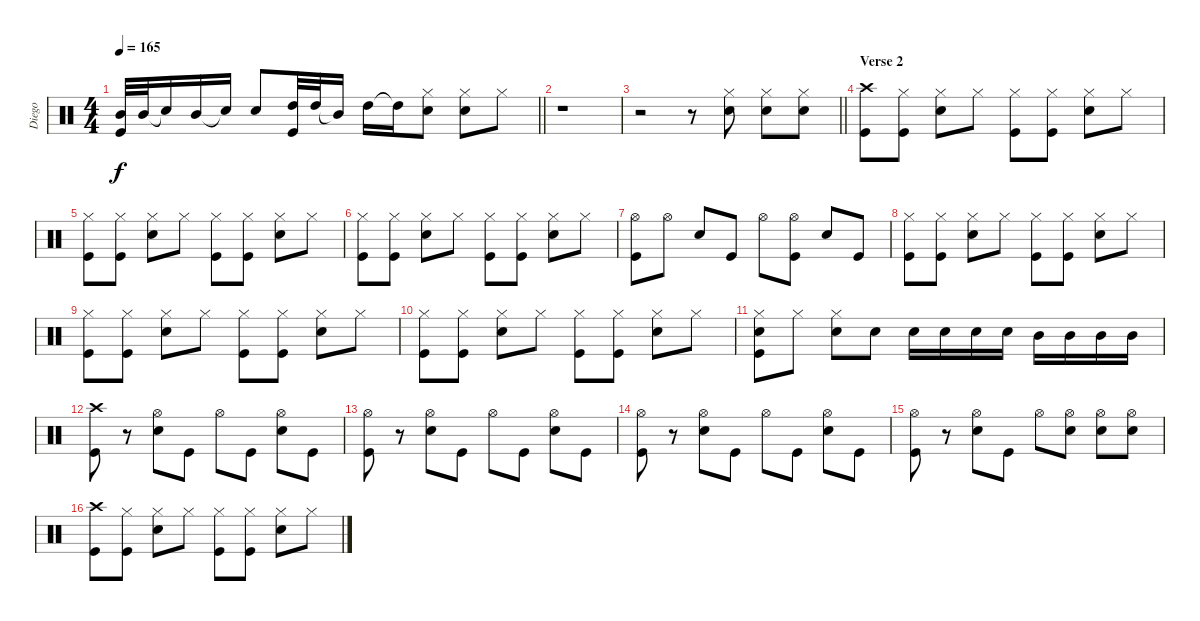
\track ("Diego" "Diego") {instrument percussion}
\staff {score}
\articulation defaults
\ts (4 4)
\tempo 165
\clef neutral
\barLineRight lightlight
\ks c
("Mid Tom (hit)" "Kick (hit)").32{dy f} "Mid Tom (hit)".32 "Snare (hit)"{t}.16 "Mid Tom (hit)".16 "Snare (hit) 2"{t}.16 "Snare (hit) 2".8 ("High Tom (hit)" "Kick (hit)").32 "High Tom (hit)".32 "Mid Tom (hit)"{t}.16 "High Tom (hit)".16 "High Tom (hit)"{t}.16 ("Hi-Hat (closed)" "Snare (hit) 2").8 ("Hi-Hat (closed)" "Snare (hit) 2").8 "Hi-Hat (closed)".8 |
r.1 |
\barLineRight lightlight
r.2 r.8 ("Hi-Hat (closed)" "Snare (hit) 2").8 ("Hi-Hat (closed)" "Snare (hit) 2").8 ("Hi-Hat (closed)" "Snare (hit) 2").8 |
\section ("" "Verse 2")
("Crash high (hit)" "Kick (hit)").8 ("Hi-Hat (closed)" "Kick (hit)").8 ("Hi-Hat (closed)" "Snare (hit) 2").8 "Hi-Hat (closed)".8 ("Hi-Hat (closed)" "Kick (hit)").8 ("Hi-Hat (closed)" "Kick (hit)").8 ("Hi-Hat (closed)" "Snare (hit) 2").8 "Hi-Hat (closed)".8 |
("Hi-Hat (closed)" "Kick (hit)").8 ("Hi-Hat (closed)" "Kick (hit)").8 ("Hi-Hat (closed)" "Snare (hit) 2").8 "Hi-Hat (closed)".8 ("Hi-Hat (closed)" "Kick (hit)").8 ("Hi-Hat (closed)" "Kick (hit)").8 ("Hi-Hat (closed)" "Snare (hit) 2").8 "Hi-Hat (closed)".8 |
("Hi-Hat (closed)" "Kick (hit)").8 ("Hi-Hat (closed)" "Kick (hit)").8 ("Hi-Hat (closed)" "Snare (hit) 2").8 "Hi-Hat (closed)".8 ("Hi-Hat (closed)" "Kick (hit)").8 ("Hi-Hat (closed)" "Kick (hit)").8 ("Hi-Hat (closed)" "Snare (hit) 2").8 "Hi-Hat (closed)".8 |
("Hi-Hat (open)" "Kick (hit)").8 "Hi-Hat (open)".8 "Snare (hit) 2".8 "Kick (hit)".8 "Hi-Hat (open)".8 ("Hi-Hat (open)" "Kick (hit)").8 "Snare (hit) 2".8 "Kick (hit)".8 |
("Hi-Hat (closed)" "Kick (hit)").8 ("Hi-Hat (closed)" "Kick (hit)").8 ("Hi-Hat (closed)" "Snare (hit) 2").8 "Hi-Hat (closed)".8 ("Hi-Hat (closed)" "Kick (hit)").8 ("Hi-Hat (closed)" "Kick (hit)").8 ("Hi-Hat (closed)" "Snare (hit) 2").8 "Hi-Hat (closed)".8 |
("Hi-Hat (closed)" "Kick (hit)").8 ("Hi-Hat (closed)" "Kick (hit)").8 ("Hi-Hat (closed)" "Snare (hit) 2").8 "Hi-Hat (closed)".8 ("Hi-Hat (closed)" "Kick (hit)").8 ("Hi-Hat (closed)" "Kick (hit)").8 ("Hi-Hat (closed)" "Snare (hit) 2").8 "Hi-Hat (closed)".8 |
("Hi-Hat (closed)" "Kick (hit)").8 ("Hi-Hat (closed)" "Kick (hit)").8 ("Hi-Hat (closed)" "Snare (hit) 2").8 "Hi-Hat (closed)".8 ("Hi-Hat (closed)" "Kick (hit)").8 ("Hi-Hat (closed)" "Kick (hit)").8 ("Hi-Hat (closed)" "Snare (hit) 2").8 "Hi-Hat (closed)".8 |
("Hi-Hat (closed)" "Snare (hit) 2" "Kick (hit)").8 "Hi-Hat (closed)".8 ("Hi-Hat (closed)" "Snare (hit) 2").8 "Snare (hit) 2".8 "Snare (hit) 2".16 "Snare (hit) 2".16 "Snare (hit) 2".16 "Snare (hit) 2".16 "Mid Tom (hit)".16 "Mid Tom (hit)".16 "Mid Tom (hit)".16 "Mid Tom (hit)".16 |
("Crash high (hit)" "Kick (hit)").8 r.8 ("Hi-Hat (open)" "Snare (hit) 2").8 "Kick (hit)".8 "Hi-Hat (open)".8 "Kick (hit)".8 ("Hi-Hat (open)" "Snare (hit) 2").8 "Kick (hit)".8 |
("Hi-Hat (open)" "Kick (hit)").8 r.8 ("Hi-Hat (open)" "Snare (hit) 2").8 "Kick (hit)".8 "Hi-Hat (open)".8 "Kick (hit)".8 ("Hi-Hat (open)" "Snare (hit) 2").8 "Kick (hit)".8 |
("Hi-Hat (open)" "Kick (hit)").8 r.8 ("Hi-Hat (open)" "Snare (hit) 2").8 "Kick (hit)".8 "Hi-Hat (open)".8 "Kick (hit)".8 ("Hi-Hat (open)" "Snare (hit) 2").8 "Kick (hit)".8 |
("Hi-Hat (open)" "Kick (hit)").8 r.8 ("Hi-Hat (open)" "Snare (hit) 2").8 "Kick (hit)".8 "Hi-Hat (open)".8 ("Hi-Hat (open)" "Snare (hit) 2").8 ("Hi-Hat (open)" "Snare (hit) 2").8 ("Hi-Hat (open)" "Snare (hit) 2").8 |
("Crash high (hit)" "Kick (hit)").8 ("Hi-Hat (closed)" "Kick (hit)").8 ("Hi-Hat (closed)" "Snare (hit) 2").8 "Hi-Hat (closed)".8 ("Hi-Hat (closed)" "Kick (hit)").8 ("Hi-Hat (closed)" "Kick (hit)").8 ("Hi-Hat (closed)" "Snare (hit) 2").8 "Hi-Hat (closed)".8
